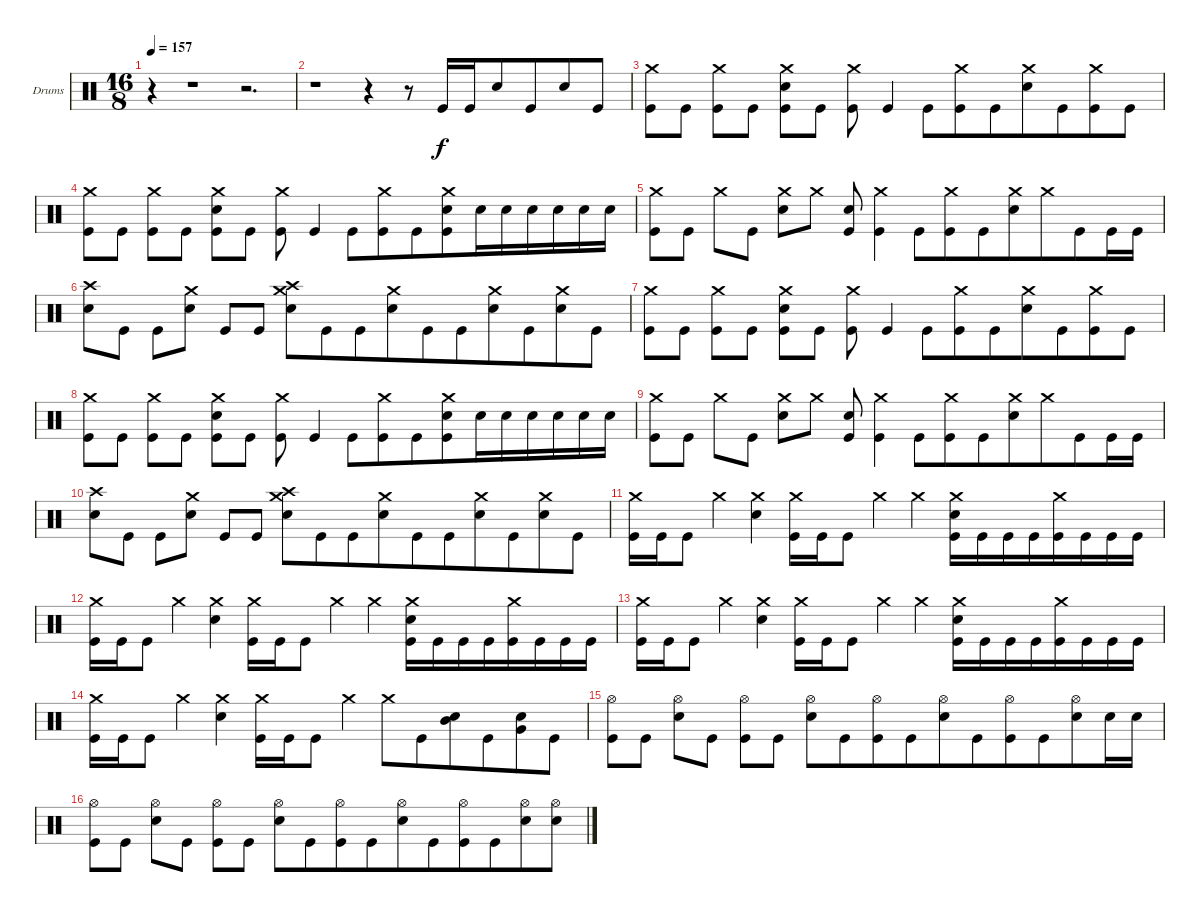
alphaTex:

\bracketExtendMode groupsimilarinstruments
\firstSystemTrackNameOrientation horizontal
\otherSystemsTrackNameOrientation horizontal
\track ("Drumkit" "Drums") {instrument percussion}
\staff {score}
\articulation defaults
\ts (16 8)
\beaming (8 2 2 2 10)
\tempo 157
\clef neutral
\ks c
r.4{dy f} r.1 r.2{d} |
r.1 r.4 r.8 "Kick (hit)".16 "Kick (hit)".16 "Snare (hit) 2".8 "Kick (hit)".8 "Snare (hit) 2".8 "Kick (hit)".8 |
("Crash medium (hit)" "Kick (hit)").8 "Kick (hit)".8 ("Kick (hit)" "Crash medium (hit)").8 "Kick (hit)".8 ("Kick (hit)" "Crash medium (hit)" "Snare (hit) 2").8 "Kick (hit)".8 ("Kick (hit)" "Crash medium (hit)").8 "Kick (hit)".4 "Kick (hit)".8 ("Kick (hit)" "Crash medium (hit)").8 "Kick (hit)".8 ("Snare (hit) 2" "Crash medium (hit)").8 "Kick (hit)".8 ("Kick (hit)" "Crash medium (hit)").8 "Kick (hit)".8 |
("Crash medium (hit)" "Kick (hit)").8 "Kick (hit)".8 ("Kick (hit)" "Crash medium (hit)").8 "Kick (hit)".8 ("Kick (hit)" "Crash medium (hit)" "Snare (hit) 2").8 "Kick (hit)".8 ("Kick (hit)" "Crash medium (hit)").8 "Kick (hit)".4 "Kick (hit)".8 ("Kick (hit)" "Crash medium (hit)").8 "Kick (hit)".8 ("Kick (hit)" "Crash medium (hit)" "Snare (hit) 2").8 "Snare (hit) 2".16 "Snare (hit) 2".16 "Snare (hit) 2".16 "Snare (hit) 2".16 "Snare (hit) 2".16 "Snare (hit) 2".16 |
("Crash medium (hit)" "Kick (hit)").8 "Kick (hit)".8 "Crash medium (hit)".8 "Kick (hit)".8 ("Snare (hit) 2" "Crash medium (hit)").8 "Crash medium (hit)".8 ("Snare (hit) 2" "Kick (hit)").8 ("Crash medium (hit)" "Kick (hit)").4 "Kick (hit)".8 ("Kick (hit)" "Crash medium (hit)").8 "Kick (hit)".8 ("Snare (hit) 2" "Crash medium (hit)").8 "Crash medium (hit)".8 "Kick (hit)".8 "Kick (hit)".16 "Kick (hit)".16 |
("Snare (hit) 2" "Crash high (hit)").8 "Kick (hit)".8 "Kick (hit)".8 ("Crash medium (hit)" "Snare (hit) 2").8 "Kick (hit)".8 "Kick (hit)".8 ("Snare (hit) 2" "Crash medium (hit)" "Crash high (hit)").8 "Kick (hit)".8 "Kick (hit)".8 ("Crash medium (hit)" "Snare (hit) 2").8 "Kick (hit)".8 "Kick (hit)".8 ("Crash medium (hit)" "Snare (hit) 2").8 "Kick (hit)".8 ("Crash medium (hit)" "Snare (hit) 2").8 "Kick (hit)".8 |
("Crash medium (hit)" "Kick (hit)").8 "Kick (hit)".8 ("Kick (hit)" "Crash medium (hit)").8 "Kick (hit)".8 ("Kick (hit)" "Crash medium (hit)" "Snare (hit) 2").8 "Kick (hit)".8 ("Kick (hit)" "Crash medium (hit)").8 "Kick (hit)".4 "Kick (hit)".8 ("Kick (hit)" "Crash medium (hit)").8 "Kick (hit)".8 ("Snare (hit) 2" "Crash medium (hit)").8 "Kick (hit)".8 ("Kick (hit)" "Crash medium (hit)").8 "Kick (hit)".8 |
("Crash medium (hit)" "Kick (hit)").8 "Kick (hit)".8 ("Kick (hit)" "Crash medium (hit)").8 "Kick (hit)".8 ("Kick (hit)" "Crash medium (hit)" "Snare (hit) 2").8 "Kick (hit)".8 ("Kick (hit)" "Crash medium (hit)").8 "Kick (hit)".4 "Kick (hit)".8 ("Kick (hit)" "Crash medium (hit)").8 "Kick (hit)".8 ("Kick (hit)" "Crash medium (hit)" "Snare (hit) 2").8 "Snare (hit) 2".16 "Snare (hit) 2".16 "Snare (hit) 2".16 "Snare (hit) 2".16 "Snare (hit) 2".16 "Snare (hit) 2".16 |
("Crash medium (hit)" "Kick (hit)").8 "Kick (hit)".8 "Crash medium (hit)".8 "Kick (hit)".8 ("Snare (hit) 2" "Crash medium (hit)").8 "Crash medium (hit)".8 ("Snare (hit) 2" "Kick (hit)").8 ("Crash medium (hit)" "Kick (hit)").4 "Kick (hit)".8 ("Kick (hit)" "Crash medium (hit)").8 "Kick (hit)".8 ("Snare (hit) 2" "Crash medium (hit)").8 "Crash medium (hit)".8 "Kick (hit)".8 "Kick (hit)".16 "Kick (hit)".16 |
("Snare (hit) 2" "Crash high (hit)").8 "Kick (hit)".8 "Kick (hit)".8 ("Crash medium (hit)" "Snare (hit) 2").8 "Kick (hit)".8 "Kick (hit)".8 ("Snare (hit) 2" "Crash medium (hit)" "Crash high (hit)").8 "Kick (hit)".8 "Kick (hit)".8 ("Crash medium (hit)" "Snare (hit) 2").8 "Kick (hit)".8 "Kick (hit)".8 ("Crash medium (hit)" "Snare (hit) 2").8 "Kick (hit)".8 ("Crash medium (hit)" "Snare (hit) 2").8 "Kick (hit)".8 |
("Crash medium (hit)" "Kick (hit)").16 "Kick (hit)".16 "Kick (hit)".8 "Crash medium (hit)".4 ("Crash medium (hit)" "Snare (hit) 2").4 ("Crash medium (hit)" "Kick (hit)").16 "Kick (hit)".16 "Kick (hit)".8 "Crash medium (hit)".4 "Crash medium (hit)".4 ("Crash medium (hit)" "Kick (hit)" "Snare (hit) 2").16 "Kick (hit)".16 "Kick (hit)".16 "Kick (hit)".16 ("Crash medium (hit)" "Kick (hit)").16 "Kick (hit)".16 "Kick (hit)".16 "Kick (hit)".16 |
("Crash medium (hit)" "Kick (hit)").16 "Kick (hit)".16 "Kick (hit)".8 "Crash medium (hit)".4 ("Crash medium (hit)" "Snare (hit) 2").4 ("Crash medium (hit)" "Kick (hit)").16 "Kick (hit)".16 "Kick (hit)".8 "Crash medium (hit)".4 "Crash medium (hit)".4 ("Crash medium (hit)" "Kick (hit)" "Snare (hit) 2").16 "Kick (hit)".16 "Kick (hit)".16 "Kick (hit)".16 ("Crash medium (hit)" "Kick (hit)").16 "Kick (hit)".16 "Kick (hit)".16 "Kick (hit)".16 |
("Crash medium (hit)" "Kick (hit)").16 "Kick (hit)".16 "Kick (hit)".8 "Crash medium (hit)".4 ("Crash medium (hit)" "Snare (hit) 2").4 ("Crash medium (hit)" "Kick (hit)").16 "Kick (hit)".16 "Kick (hit)".8 "Crash medium (hit)".4 "Crash medium (hit)".4 ("Crash medium (hit)" "Kick (hit)" "Snare (hit) 2").16 "Kick (hit)".16 "Kick (hit)".16 "Kick (hit)".16 ("Crash medium (hit)" "Kick (hit)").16 "Kick (hit)".16 "Kick (hit)".16 "Kick (hit)".16 |
("Crash medium (hit)" "Kick (hit)").16 "Kick (hit)".16 "Kick (hit)".8 "Crash medium (hit)".4 ("Crash medium (hit)" "Snare (hit) 2").4 ("Crash medium (hit)" "Kick (hit)").16 "Kick (hit)".16 "Kick (hit)".8 "Crash medium (hit)".4 "Crash medium (hit)".8 "Kick (hit)".8 ("Mid Tom (hit)" "Snare (hit) 2").8 "Kick (hit)".8 ("Very Low Tom (hit)" "Snare (hit) 2").8 "Kick (hit)".8 |
("Hi-Hat (open)" "Kick (hit)").8 "Kick (hit)".8 ("Snare (hit) 2" "Hi-Hat (open)").8 "Kick (hit)".8 ("Kick (hit)" "Hi-Hat (open)").8 "Kick (hit)".8 ("Snare (hit) 2" "Hi-Hat (open)").8 "Kick (hit)".8 ("Hi-Hat (open)" "Kick (hit)").8 "Kick (hit)".8 ("Snare (hit) 2" "Hi-Hat (open)").8 "Kick (hit)".8 ("Kick (hit)" "Hi-Hat (open)").8 "Kick (hit)".8 ("Snare (hit) 2" "Hi-Hat (open)").8 "Snare (hit) 2".16 "Snare (hit) 2".16 |
("Hi-Hat (open)" "Kick (hit)").8 "Kick (hit)".8 ("Snare (hit) 2" "Hi-Hat (open)").8 "Kick (hit)".8 ("Kick (hit)" "Hi-Hat (open)").8 "Kick (hit)".8 ("Snare (hit) 2" "Hi-Hat (open)").8 "Kick (hit)".8 ("Hi-Hat (open)" "Kick (hit)").8 "Kick (hit)".8 ("Snare (hit) 2" "Hi-Hat (open)").8 "Kick (hit)".8 ("Kick (hit)" "Hi-Hat (open)").8 "Kick (hit)".8 ("Snare (hit) 2" "Hi-Hat (open)").8 ("Snare (hit) 2" "Hi-Hat (open)").8
